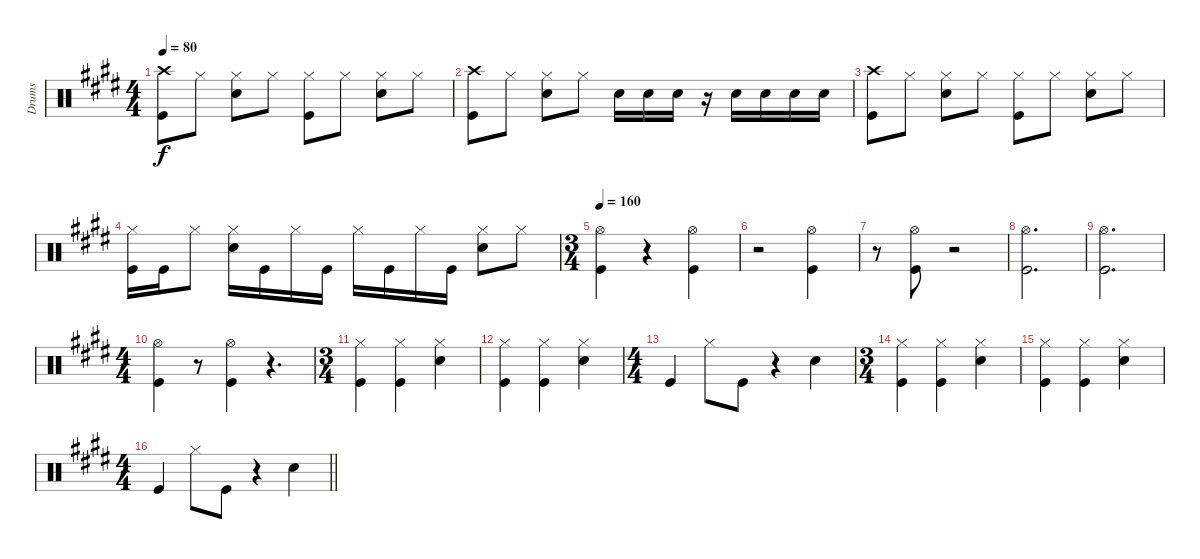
\track ("Drums" "Drums") {instrument percussion}
\staff {score}
\articulation defaults
\ts (4 4)
\tempo 80
\clef neutral
\ks e
("Crash high (hit)" "Kick (hit)").8{dy f} "Hi-Hat (closed)".8 ("Hi-Hat (closed)" "Snare (hit) 2").8 "Hi-Hat (closed)".8 ("Hi-Hat (closed)" "Kick (hit)").8 "Hi-Hat (closed)".8 ("Hi-Hat (closed)" "Snare (hit) 2").8 "Hi-Hat (closed)".8 |
("Crash high (hit)" "Kick (hit)").8 "Hi-Hat (closed)".8 ("Hi-Hat (closed)" "Snare (hit) 2").8 "Hi-Hat (closed)".8 "Snare (hit) 2".16 "Snare (hit) 2".16 "Snare (hit) 2".16 r.16 "Snare (hit) 2".16 "Snare (hit) 2".16 "Snare (hit) 2".16 "Snare (hit) 2".16 |
("Crash high (hit)" "Kick (hit)").8 "Hi-Hat (closed)".8 ("Hi-Hat (closed)" "Snare (hit) 2").8 "Hi-Hat (closed)".8 ("Hi-Hat (closed)" "Kick (hit)").8 "Hi-Hat (closed)".8 ("Hi-Hat (closed)" "Snare (hit) 2").8 "Hi-Hat (closed)".8 |
("Hi-Hat (closed)" "Kick (hit)").16 "Kick (hit)".16 "Hi-Hat (closed)".8 ("Hi-Hat (closed)" "Snare (hit) 2").16 "Kick (hit)".16 "Hi-Hat (closed)".16 "Kick (hit)".16 "Hi-Hat (closed)".16 "Kick (hit)".16 "Hi-Hat (closed)".16 "Kick (hit)".16 ("Hi-Hat (closed)" "Snare (hit) 2").8 "Hi-Hat (closed)".8 |
\ts (3 4)
\tempo 165
\tempo 160
("Hi-Hat (open)" "Kick (hit)").4 r.4 ("Hi-Hat (open)" "Kick (hit)").4 |
r.2 ("Hi-Hat (open)" "Kick (hit)").4 |
r.8 ("Hi-Hat (open)" "Kick (hit)").8 r.2 |
("Hi-Hat (open)" "Kick (hit)").2{d} |
("Hi-Hat (open)" "Kick (hit)").2{d} |
\ts (4 4)
("Hi-Hat (open)" "Kick (hit)").4 r.8 ("Hi-Hat (open)" "Kick (hit)").4 r.4{d} |
\ts (3 4)
("Hi-Hat (closed)" "Kick (hit)").4 ("Hi-Hat (closed)" "Kick (hit)").4 ("Hi-Hat (closed)" "Snare (hit) 2").4 |
("Hi-Hat (closed)" "Kick (hit)").4 ("Hi-Hat (closed)" "Kick (hit)").4 ("Hi-Hat (closed)" "Snare (hit) 2").4 |
\ts (4 4)
"Kick (hit)".4 "Hi-Hat (closed)".8 "Kick (hit)".8 r.4 "Snare (hit) 2".4 |
\ts (3 4)
("Hi-Hat (closed)" "Kick (hit)").4 ("Hi-Hat (closed)" "Kick (hit)").4 ("Hi-Hat (closed)" "Snare (hit) 2").4 |
("Hi-Hat (closed)" "Kick (hit)").4 ("Hi-Hat (closed)" "Kick (hit)").4 ("Hi-Hat (closed)" "Snare (hit) 2").4 |
\ts (4 4)
\barLineRight lightlight "Kick (hit)".4 "Hi-Hat (closed)".8 "Kick (hit)".8
r.4 "Snare (hit) 2".4
